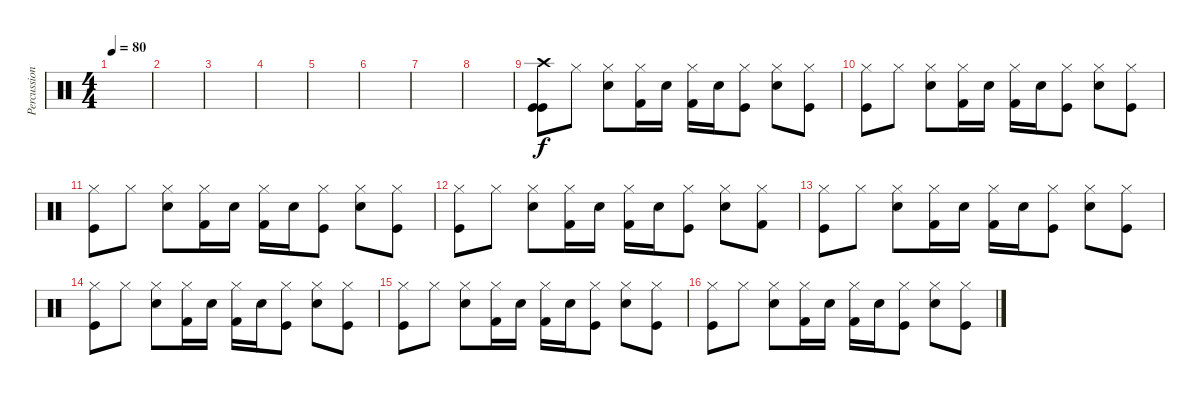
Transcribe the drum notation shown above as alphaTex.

\track ("Percussions" "Percussion") {instrument percussion}
\staff {score}
\articulation defaults
\ts (4 4)
\tempo 80
\clef neutral
\ks c
|
|
|
|
|
|
|
|
("Crash high (hit)" "Kick (hit)" "Kick (hit)").8 "Hi-Hat (closed)".8 ("Hi-Hat (closed)" "Snare (hit) 2").8 ("Hi-Hat (closed)" "Kick (hit) 2").16 "Snare (hit) 2".16 ("Hi-Hat (closed)" "Kick (hit) 2").16 "Snare (hit) 2".16 ("Hi-Hat (closed)" "Kick (hit)").8 ("Hi-Hat (closed)" "Snare (hit) 2").8 ("Hi-Hat (closed)" "Kick (hit)").8 |
("Hi-Hat (closed)" "Kick (hit)").8 "Hi-Hat (closed)".8 ("Hi-Hat (closed)" "Snare (hit) 2").8 ("Hi-Hat (closed)" "Kick (hit) 2").16 "Snare (hit) 2".16 ("Hi-Hat (closed)" "Kick (hit) 2").16 "Snare (hit) 2".16 ("Hi-Hat (closed)" "Kick (hit)").8 ("Hi-Hat (closed)" "Snare (hit) 2").8 ("Hi-Hat (closed)" "Kick (hit)").8 |
("Hi-Hat (closed)" "Kick (hit)").8 "Hi-Hat (closed)".8 ("Hi-Hat (closed)" "Snare (hit) 2").8 ("Hi-Hat (closed)" "Kick (hit) 2").16 "Snare (hit) 2".16 ("Hi-Hat (closed)" "Kick (hit) 2").16 "Snare (hit) 2".16 ("Hi-Hat (closed)" "Kick (hit)").8 ("Hi-Hat (closed)" "Snare (hit) 2").8 ("Hi-Hat (closed)" "Kick (hit)").8 |
("Hi-Hat (closed)" "Kick (hit)").8 "Hi-Hat (closed)".8 ("Hi-Hat (closed)" "Snare (hit) 2").8 ("Hi-Hat (closed)" "Kick (hit) 2").16 "Snare (hit) 2".16 ("Hi-Hat (closed)" "Kick (hit) 2").16 "Snare (hit) 2".16 ("Hi-Hat (closed)" "Kick (hit)").8 ("Hi-Hat (closed)" "Snare (hit) 2").8 ("Hi-Hat (closed)" "Kick (hit) 2").8 |
("Hi-Hat (closed)" "Kick (hit)").8 "Hi-Hat (closed)".8 ("Hi-Hat (closed)" "Snare (hit) 2").8 ("Hi-Hat (closed)" "Kick (hit) 2").16 "Snare (hit) 2".16 ("Hi-Hat (closed)" "Kick (hit) 2").16 "Snare (hit) 2".16 ("Hi-Hat (closed)" "Kick (hit)").8 ("Hi-Hat (closed)" "Snare (hit) 2").8 ("Hi-Hat (closed)" "Kick (hit)").8 |
("Hi-Hat (closed)" "Kick (hit)").8 "Hi-Hat (closed)".8 ("Hi-Hat (closed)" "Snare (hit) 2").8 ("Hi-Hat (closed)" "Kick (hit) 2").16 "Snare (hit) 2".16 ("Hi-Hat (closed)" "Kick (hit) 2").16 "Snare (hit) 2".16 ("Hi-Hat (closed)" "Kick (hit)").8 ("Hi-Hat (closed)" "Snare (hit) 2").8 ("Hi-Hat (closed)" "Kick (hit)").8 |
("Hi-Hat (closed)" "Kick (hit)").8 "Hi-Hat (closed)".8 ("Hi-Hat (closed)" "Snare (hit) 2").8 ("Hi-Hat (closed)" "Kick (hit) 2").16 "Snare (hit) 2".16 ("Hi-Hat (closed)" "Kick (hit) 2").16 "Snare (hit) 2".16 ("Hi-Hat (closed)" "Kick (hit)").8 ("Hi-Hat (closed)" "Snare (hit) 2").8 ("Hi-Hat (closed)" "Kick (hit)").8 |
("Hi-Hat (closed)" "Kick (hit)").8 "Hi-Hat (closed)".8 ("Hi-Hat (closed)" "Snare (hit) 2").8 ("Hi-Hat (closed)" "Kick (hit) 2").16 "Snare (hit) 2".16 ("Hi-Hat (closed)" "Kick (hit) 2").16 "Snare (hit) 2".16 ("Hi-Hat (closed)" "Kick (hit)").8 ("Hi-Hat (closed)" "Snare (hit) 2").8 ("Hi-Hat (closed)" "Kick (hit)").8
